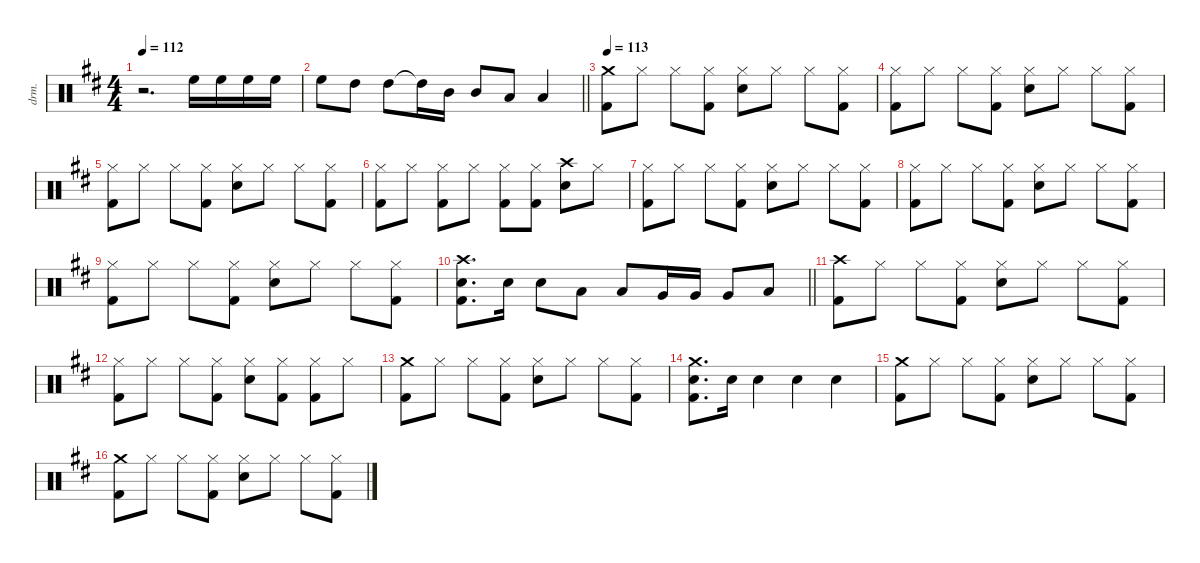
\defaultSystemsLayout 4
\hideDynamics
\bracketExtendMode nobrackets
\otherSystemsTrackNameOrientation horizontal
\track ("Lars - Drums" "drm.") {defaultSystemsLayout 4 instrument percussion}
\staff {score}
\articulation defaults
\ts (4 4)
\tempo 112
\clef neutral
\ks bminor
r.2{d dy f beam Down} "High Floor Tom (hit)"{acc forcenatural}.16{beam Down} "High Floor Tom (hit)"{acc forcenatural}.16{beam Down} "High Floor Tom (hit)"{acc forcenatural}.16{beam Down} "High Floor Tom (hit)"{acc forcenatural}.16{beam Down} |
\barLineRight lightlight "High Floor Tom (hit)"{acc forcenatural}.8{dy ff beam Down} "High Tom (hit)"{acc forcenatural}.8{dy f beam Down} "High Tom (hit)"{acc forcenatural}.8{beam Down} "High Tom (hit)"{t acc forcenatural}.16{beam Down} "Mid Tom (hit)"{acc forcenatural}.16{beam Down} "Mid Tom (hit)"{acc forcenatural}.8{beam Up} "Low Tom (hit)"{acc forcenatural}.8{beam Up} "Low Tom (hit)"{acc forcenatural}.4{beam Up}
|
\tempo 113
("Crash medium (hit)"{acc forcenatural} "Kick (hit) 2"{acc forcenatural}).8{beam Down} "Hi-Hat (closed)"{acc forcenatural}.8{beam Down} "Hi-Hat (closed)"{acc forcenatural}.8{beam Down} ("Hi-Hat (closed)"{acc forcenatural} "Kick (hit) 2"{acc forcenatural}).8{beam Down} ("Hi-Hat (closed)"{acc forcenatural} "Snare (hit) 2"{acc forcenatural}).8{beam Down} "Hi-Hat (closed)"{acc forcenatural}.8{beam Down} "Hi-Hat (closed)"{acc forcenatural}.8{beam Down} ("Hi-Hat (closed)"{acc forcenatural} "Kick (hit) 2"{acc forcenatural}).8{beam Down} |
("Hi-Hat (closed)"{acc forcenatural} "Kick (hit) 2"{acc forcenatural}).8{beam Down} "Hi-Hat (closed)"{acc forcenatural}.8{beam Down} "Hi-Hat (closed)"{acc forcenatural}.8{beam Down} ("Hi-Hat (closed)"{acc forcenatural} "Kick (hit) 2"{acc forcenatural}).8{beam Down} ("Hi-Hat (closed)"{acc forcenatural} "Snare (hit) 2"{acc forcenatural}).8{beam Down} "Hi-Hat (closed)"{acc forcenatural}.8{beam Down} "Hi-Hat (closed)"{acc forcenatural}.8{beam Down} ("Hi-Hat (closed)"{acc forcenatural} "Kick (hit) 2"{acc forcenatural}).8{beam Down} |
("Hi-Hat (closed)"{acc forcenatural} "Kick (hit) 2"{acc forcenatural}).8{beam Down} "Hi-Hat (closed)"{acc forcenatural}.8{beam Down} "Hi-Hat (closed)"{acc forcenatural}.8{beam Down} ("Hi-Hat (closed)"{acc forcenatural} "Kick (hit) 2"{acc forcenatural}).8{beam Down} ("Hi-Hat (closed)"{acc forcenatural} "Snare (hit) 2"{acc forcenatural}).8{beam Down} "Hi-Hat (closed)"{acc forcenatural}.8{beam Down} "Hi-Hat (closed)"{acc forcenatural}.8{beam Down} ("Hi-Hat (closed)"{acc forcenatural} "Kick (hit) 2"{acc forcenatural}).8{beam Down} |
("Hi-Hat (closed)"{acc forcenatural} "Kick (hit) 2"{acc forcenatural}).8{beam Down} "Hi-Hat (closed)"{acc forcenatural}.8{beam Down} ("Hi-Hat (closed)"{acc forcenatural} "Kick (hit) 2"{acc forcenatural}).8{beam Down} "Hi-Hat (closed)"{acc forcenatural}.8{beam Down} ("Hi-Hat (closed)"{acc forcenatural} "Kick (hit) 2"{acc forcenatural}).8{beam Down} ("Hi-Hat (closed)"{acc forcenatural} "Kick (hit) 2"{acc forcenatural}).8{beam Down} ("Crash high (hit)"{acc forcenatural} "Snare (hit) 2"{acc forcenatural}).8{beam Down} "Hi-Hat (closed)"{acc forcenatural}.8{beam Down} |
("Hi-Hat (closed)"{acc forcenatural} "Kick (hit) 2"{acc forcenatural}).8{beam Down} "Hi-Hat (closed)"{acc forcenatural}.8{beam Down} "Hi-Hat (closed)"{acc forcenatural}.8{beam Down} ("Hi-Hat (closed)"{acc forcenatural} "Kick (hit) 2"{acc forcenatural}).8{beam Down} ("Hi-Hat (closed)"{acc forcenatural} "Snare (hit) 2"{acc forcenatural}).8{beam Down} "Hi-Hat (closed)"{acc forcenatural}.8{beam Down} "Hi-Hat (closed)"{acc forcenatural}.8{beam Down} ("Hi-Hat (closed)"{acc forcenatural} "Kick (hit) 2"{acc forcenatural}).8{beam Down} |
("Hi-Hat (closed)"{acc forcenatural} "Kick (hit) 2"{acc forcenatural}).8{beam Down} "Hi-Hat (closed)"{acc forcenatural}.8{beam Down} "Hi-Hat (closed)"{acc forcenatural}.8{beam Down} ("Hi-Hat (closed)"{acc forcenatural} "Kick (hit) 2"{acc forcenatural}).8{beam Down} ("Hi-Hat (closed)"{acc forcenatural} "Snare (hit) 2"{acc forcenatural}).8{beam Down} "Hi-Hat (closed)"{acc forcenatural}.8{beam Down} "Hi-Hat (closed)"{acc forcenatural}.8{beam Down} ("Hi-Hat (closed)"{acc forcenatural} "Kick (hit) 2"{acc forcenatural}).8{beam Down} |
("Hi-Hat (closed)"{acc forcenatural} "Kick (hit) 2"{acc forcenatural}).8{beam Down} "Hi-Hat (closed)"{acc forcenatural}.8{beam Down} "Hi-Hat (closed)"{acc forcenatural}.8{beam Down} ("Hi-Hat (closed)"{acc forcenatural} "Kick (hit) 2"{acc forcenatural}).8{beam Down} ("Hi-Hat (closed)"{acc forcenatural} "Snare (hit) 2"{acc forcenatural}).8{beam Down} "Hi-Hat (closed)"{acc forcenatural}.8{beam Down} "Hi-Hat (closed)"{acc forcenatural}.8{beam Down} ("Hi-Hat (closed)"{acc forcenatural} "Kick (hit) 2"{acc forcenatural}).8{beam Down} |
\barLineRight lightlight
("Crash high (hit)"{acc forcenatural} "Snare (hit) 2"{acc forcenatural} "Kick (hit) 2"{acc forcenatural}).8{d beam Down} "Snare (hit) 2"{acc forcenatural}.16{beam Down} "Snare (hit) 2"{acc forcenatural}.8{beam Down} "Low Tom (hit)"{acc forcenatural}.8{beam Down} "Low Tom (hit)"{acc forcenatural}.8{beam Up} "Very Low Tom (hit)"{acc forcenatural}.16{beam Up} "Very Low Tom (hit)"{acc forcenatural}.16{beam Up} "Very Low Tom (hit)"{acc forcenatural}.8{beam Up} "Low Floor Tom (hit)"{acc forcenatural}.8{beam Up} |
("Crash high (hit)"{acc forcenatural} "Kick (hit) 2"{acc forcenatural}).8{beam Down} "Hi-Hat (closed)"{acc forcenatural}.8{beam Down} "Hi-Hat (closed)"{acc forcenatural}.8{beam Down} ("Hi-Hat (closed)"{acc forcenatural} "Kick (hit) 2"{acc forcenatural}).8{beam Down} ("Hi-Hat (closed)"{acc forcenatural} "Snare (hit) 2"{acc forcenatural}).8{beam Down} "Hi-Hat (closed)"{acc forcenatural}.8{beam Down} "Hi-Hat (closed)"{acc forcenatural}.8{beam Down} ("Hi-Hat (closed)"{acc forcenatural} "Kick (hit) 2"{acc forcenatural}).8{beam Down} |
("Hi-Hat (closed)"{acc forcenatural} "Kick (hit) 2"{acc forcenatural}).8{beam Down} "Hi-Hat (closed)"{acc forcenatural}.8{beam Down} "Hi-Hat (closed)"{acc forcenatural}.8{beam Down} ("Hi-Hat (closed)"{acc forcenatural} "Kick (hit) 2"{acc forcenatural}).8{beam Down} ("Hi-Hat (closed)"{acc forcenatural} "Snare (hit) 2"{acc forcenatural}).8{beam Down} ("Hi-Hat (closed)"{acc forcenatural} "Kick (hit) 2"{acc forcenatural}).8{beam Down} ("Hi-Hat (closed)"{acc forcenatural} "Kick (hit) 2"{acc forcenatural}).8{beam Down} "Hi-Hat (closed)"{acc forcenatural}.8{beam Down} |
("Crash medium (hit)"{acc forcenatural} "Kick (hit) 2"{acc forcenatural}).8{beam Down} "Hi-Hat (closed)"{acc forcenatural}.8{beam Down} "Hi-Hat (closed)"{acc forcenatural}.8{beam Down} ("Hi-Hat (closed)"{acc forcenatural} "Kick (hit) 2"{acc forcenatural}).8{beam Down} ("Hi-Hat (closed)"{acc forcenatural} "Snare (hit) 2"{acc forcenatural}).8{beam Down} "Hi-Hat (closed)"{acc forcenatural}.8{beam Down} "Hi-Hat (closed)"{acc forcenatural}.8{beam Down} ("Hi-Hat (closed)"{acc forcenatural} "Kick (hit) 2"{acc forcenatural}).8{beam Down} |
("Crash medium (hit)"{acc forcenatural} "Snare (hit) 2"{acc forcenatural} "Kick (hit) 2"{acc forcenatural}).8{d beam Down} "Snare (hit) 2"{acc forcenatural}.16{beam Down} "Snare (hit) 2"{acc forcenatural}.4{beam Down} "Snare (hit) 2"{acc forcenatural}.4{beam Down} "Snare (hit) 2"{acc forcenatural}.4{beam Down} |
("Crash medium (hit)"{acc forcenatural} "Kick (hit) 2"{acc forcenatural}).8{beam Down} "Hi-Hat (closed)"{acc forcenatural}.8{beam Down} "Hi-Hat (closed)"{acc forcenatural}.8{beam Down} ("Hi-Hat (closed)"{acc forcenatural} "Kick (hit) 2"{acc forcenatural}).8{beam Down} ("Hi-Hat (closed)"{acc forcenatural} "Snare (hit) 2"{acc forcenatural}).8{beam Down} "Hi-Hat (closed)"{acc forcenatural}.8{beam Down} "Hi-Hat (closed)"{acc forcenatural}.8{beam Down} ("Hi-Hat (closed)"{acc forcenatural} "Kick (hit) 2"{acc forcenatural}).8{beam Down} |
("Crash medium (hit)"{acc forcenatural} "Kick (hit) 2"{acc forcenatural}).8{beam Down} "Hi-Hat (closed)"{acc forcenatural}.8{beam Down} "Hi-Hat (closed)"{acc forcenatural}.8{beam Down} ("Hi-Hat (closed)"{acc forcenatural} "Kick (hit) 2"{acc forcenatural}).8{beam Down} ("Hi-Hat (closed)"{acc forcenatural} "Snare (hit) 2"{acc forcenatural}).8{beam Down} "Hi-Hat (closed)"{acc forcenatural}.8{beam Down} "Hi-Hat (closed)"{acc forcenatural}.8{beam Down} ("Hi-Hat (closed)"{acc forcenatural} "Kick (hit) 2"{acc forcenatural}).8{beam Down}
